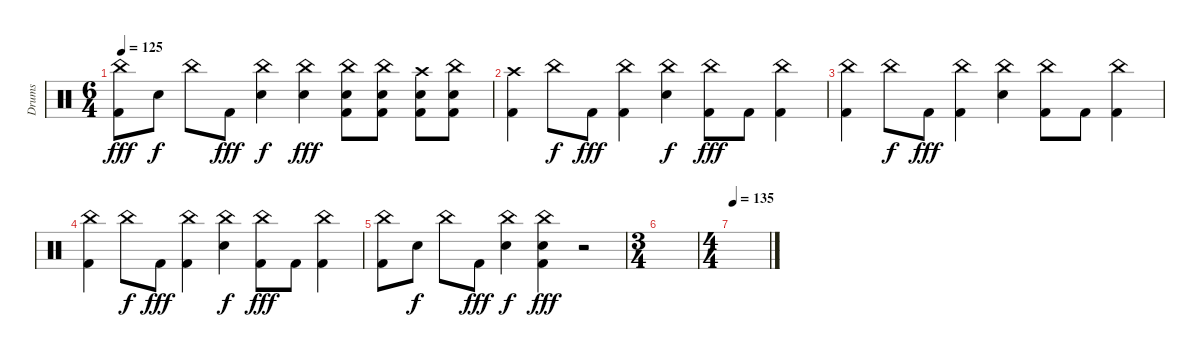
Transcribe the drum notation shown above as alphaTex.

\track ("Drums" "Drums") {instrument percussion}
\staff {score}
\articulation defaults
\ts (6 4)
\tempo 125
\clef neutral
\ks c
("China (hit)" "Kick (hit) 2").8{dy fff} "Snare (hit) 2".8{dy f} "China (hit)".8 "Kick (hit) 2".8{dy fff} ("China (hit)" "Snare (hit) 2").4{dy f} ("China (hit)" "Snare (hit) 2").4{dy fff} ("China (hit)" "Snare (hit) 2" "Kick (hit) 2").8 ("China (hit)" "Snare (hit) 2" "Kick (hit) 2").8 ("Crash high (hit)" "Snare (hit) 2" "Kick (hit) 2").8 ("China (hit)" "Snare (hit) 2" "Kick (hit) 2").8 |
("Crash high (hit)" "Kick (hit) 2").4 "China (hit)".8{dy f} "Kick (hit) 2".8{dy fff} ("China (hit)" "Kick (hit) 2").4 ("China (hit)" "Snare (hit) 2").4{dy f} ("China (hit)" "Kick (hit) 2").8{dy fff} "Kick (hit) 2".8 ("China (hit)" "Kick (hit) 2").4 |
("China (hit)" "Kick (hit) 2").4 "China (hit)".8{dy f} "Kick (hit) 2".8{dy fff} ("China (hit)" "Kick (hit) 2").4 ("China (hit)" "Snare (hit) 2").4 ("China (hit)" "Kick (hit) 2").8 "Kick (hit) 2".8 ("China (hit)" "Kick (hit) 2").4 |
("China (hit)" "Kick (hit) 2").4 "China (hit)".8{dy f} "Kick (hit) 2".8{dy fff} ("China (hit)" "Kick (hit) 2").4 ("China (hit)" "Snare (hit) 2").4{dy f} ("China (hit)" "Kick (hit) 2").8{dy fff} "Kick (hit) 2".8 ("China (hit)" "Kick (hit) 2").4 |
("China (hit)" "Kick (hit) 2").8 "Snare (hit) 2".8{dy f} "China (hit)".8 "Kick (hit) 2".8{dy fff} ("China (hit)" "Snare (hit) 2").4{dy f} ("China (hit)" "Snare (hit) 2" "Kick (hit) 2").4{dy fff} r.2{volume 0} |
\ts (3 4)
|
\ts (4 4)
\tempo 135
